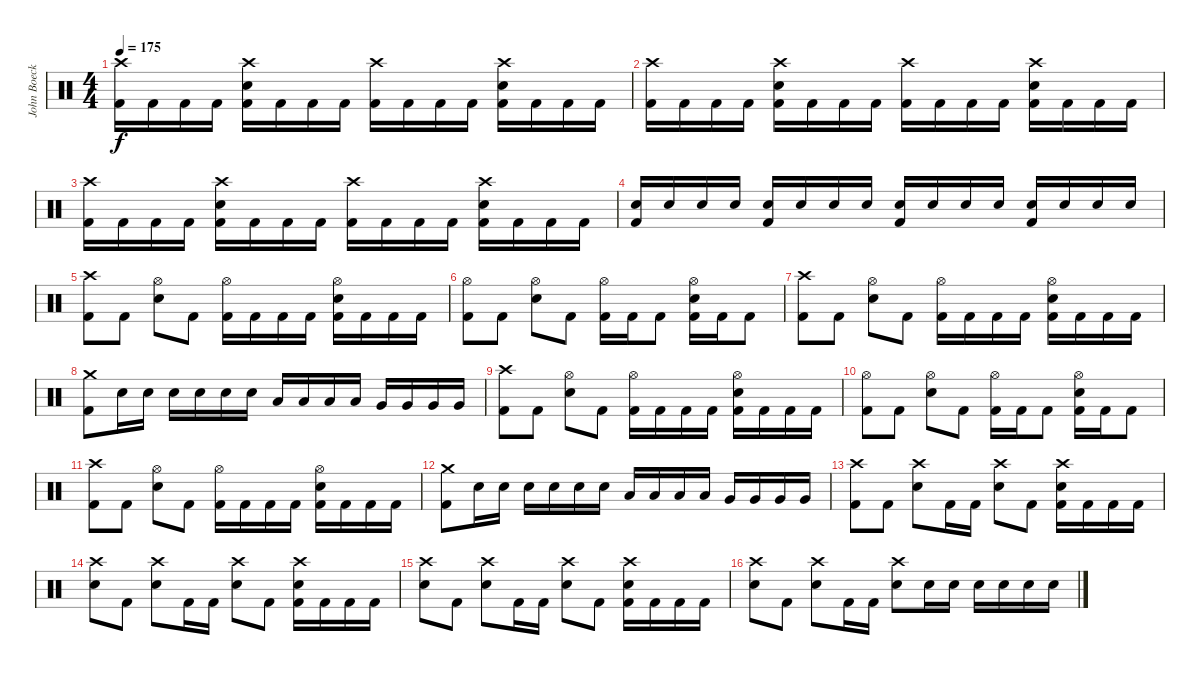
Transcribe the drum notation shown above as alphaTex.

\track ("John Boecklin (Drums)" "John Boeck") {instrument percussion}
\staff {score}
\articulation defaults
\ts (4 4)
\tempo 175
\clef neutral
\ks c
("Crash high (hit)" "Kick (hit) 2").16{dy f} "Kick (hit) 2".16 "Kick (hit) 2".16 "Kick (hit) 2".16 ("Crash high (hit)" "Snare (hit) 2" "Kick (hit) 2").16 "Kick (hit) 2".16 "Kick (hit) 2".16 "Kick (hit) 2".16 ("Crash high (hit)" "Kick (hit) 2").16 "Kick (hit) 2".16 "Kick (hit) 2".16 "Kick (hit) 2".16 ("Crash high (hit)" "Snare (hit) 2" "Kick (hit) 2").16 "Kick (hit) 2".16 "Kick (hit) 2".16 "Kick (hit) 2".16 |
("Crash high (hit)" "Kick (hit) 2").16 "Kick (hit) 2".16 "Kick (hit) 2".16 "Kick (hit) 2".16 ("Crash high (hit)" "Snare (hit) 2" "Kick (hit) 2").16 "Kick (hit) 2".16 "Kick (hit) 2".16 "Kick (hit) 2".16 ("Crash high (hit)" "Kick (hit) 2").16 "Kick (hit) 2".16 "Kick (hit) 2".16 "Kick (hit) 2".16 ("Crash high (hit)" "Snare (hit) 2" "Kick (hit) 2").16 "Kick (hit) 2".16 "Kick (hit) 2".16 "Kick (hit) 2".16 |
("Crash high (hit)" "Kick (hit) 2").16 "Kick (hit) 2".16 "Kick (hit) 2".16 "Kick (hit) 2".16 ("Crash high (hit)" "Snare (hit) 2" "Kick (hit) 2").16 "Kick (hit) 2".16 "Kick (hit) 2".16 "Kick (hit) 2".16 ("Crash high (hit)" "Kick (hit) 2").16 "Kick (hit) 2".16 "Kick (hit) 2".16 "Kick (hit) 2".16 ("Crash high (hit)" "Snare (hit) 2" "Kick (hit) 2").16 "Kick (hit) 2".16 "Kick (hit) 2".16 "Kick (hit) 2".16 |
("Kick (hit) 2" "Snare (hit) 2").16 "Snare (hit) 2".16 "Snare (hit) 2".16 "Snare (hit) 2".16 ("Kick (hit) 2" "Snare (hit) 2").16 "Snare (hit) 2".16 "Snare (hit) 2".16 "Snare (hit) 2".16 ("Kick (hit) 2" "Snare (hit) 2").16 "Snare (hit) 2".16 "Snare (hit) 2".16 "Snare (hit) 2".16 ("Kick (hit) 2" "Snare (hit) 2").16 "Snare (hit) 2".16 "Snare (hit) 2".16 "Snare (hit) 2".16 |
("Crash high (hit)" "Kick (hit) 2").8 "Kick (hit) 2".8 ("Hi-Hat (open)" "Snare (hit) 2").8 "Kick (hit) 2".8 ("Hi-Hat (open)" "Kick (hit) 2").16 "Kick (hit) 2".16 "Kick (hit) 2".16 "Kick (hit) 2".16 ("Hi-Hat (open)" "Snare (hit) 2" "Kick (hit) 2").16 "Kick (hit) 2".16 "Kick (hit) 2".16 "Kick (hit) 2".16 |
("Hi-Hat (open)" "Kick (hit) 2").8 "Kick (hit) 2".8 ("Hi-Hat (open)" "Snare (hit) 2").8 "Kick (hit) 2".8 ("Hi-Hat (open)" "Kick (hit) 2").16 "Kick (hit) 2".16 "Kick (hit) 2".8 ("Hi-Hat (open)" "Snare (hit) 2" "Kick (hit) 2").16 "Kick (hit) 2".16 "Kick (hit) 2".8 |
("Crash high (hit)" "Kick (hit) 2").8 "Kick (hit) 2".8 ("Hi-Hat (open)" "Snare (hit) 2").8 "Kick (hit) 2".8 ("Hi-Hat (open)" "Kick (hit) 2").16 "Kick (hit) 2".16 "Kick (hit) 2".16 "Kick (hit) 2".16 ("Hi-Hat (open)" "Snare (hit) 2" "Kick (hit) 2").16 "Kick (hit) 2".16 "Kick (hit) 2".16 "Kick (hit) 2".16 |
("Crash medium (hit)" "Kick (hit) 2").8 "Snare (hit) 2".16 "Snare (hit) 2".16 "Snare (hit) 2".16 "Snare (hit) 2".16 "Snare (hit) 2".16 "Snare (hit) 2".16 "Low Tom (hit)".16 "Low Tom (hit)".16 "Low Tom (hit)".16 "Low Tom (hit)".16 "Very Low Tom (hit)".16 "Very Low Tom (hit)".16 "Very Low Tom (hit)".16 "Very Low Tom (hit)".16 |
("Crash high (hit)" "Kick (hit) 2").8 "Kick (hit) 2".8 ("Hi-Hat (open)" "Snare (hit) 2").8 "Kick (hit) 2".8 ("Hi-Hat (open)" "Kick (hit) 2").16 "Kick (hit) 2".16 "Kick (hit) 2".16 "Kick (hit) 2".16 ("Hi-Hat (open)" "Snare (hit) 2" "Kick (hit) 2").16 "Kick (hit) 2".16 "Kick (hit) 2".16 "Kick (hit) 2".16 |
("Hi-Hat (open)" "Kick (hit) 2").8 "Kick (hit) 2".8 ("Hi-Hat (open)" "Snare (hit) 2").8 "Kick (hit) 2".8 ("Hi-Hat (open)" "Kick (hit) 2").16 "Kick (hit) 2".16 "Kick (hit) 2".8 ("Hi-Hat (open)" "Snare (hit) 2" "Kick (hit) 2").16 "Kick (hit) 2".16 "Kick (hit) 2".8 |
("Crash high (hit)" "Kick (hit) 2").8 "Kick (hit) 2".8 ("Hi-Hat (open)" "Snare (hit) 2").8 "Kick (hit) 2".8 ("Hi-Hat (open)" "Kick (hit) 2").16 "Kick (hit) 2".16 "Kick (hit) 2".16 "Kick (hit) 2".16 ("Hi-Hat (open)" "Snare (hit) 2" "Kick (hit) 2").16 "Kick (hit) 2".16 "Kick (hit) 2".16 "Kick (hit) 2".16 |
("Crash medium (hit)" "Kick (hit) 2").8 "Snare (hit) 2".16 "Snare (hit) 2".16 "Snare (hit) 2".16 "Snare (hit) 2".16 "Snare (hit) 2".16 "Snare (hit) 2".16 "Low Tom (hit)".16 "Low Tom (hit)".16 "Low Tom (hit)".16 "Low Tom (hit)".16 "Very Low Tom (hit)".16 "Very Low Tom (hit)".16 "Very Low Tom (hit)".16 "Very Low Tom (hit)".16 |
("Crash high (hit)" "Kick (hit) 2").8 "Kick (hit) 2".8 ("Crash high (hit)" "Snare (hit) 2").8 "Kick (hit) 2".16 "Kick (hit) 2".16 ("Crash high (hit)" "Snare (hit) 2").8 "Kick (hit) 2".8 ("Crash high (hit)" "Snare (hit) 2" "Kick (hit) 2").16 "Kick (hit) 2".16 "Kick (hit) 2".16 "Kick (hit) 2".16 |
("Crash high (hit)" "Snare (hit) 2").8 "Kick (hit) 2".8 ("Crash high (hit)" "Snare (hit) 2").8 "Kick (hit) 2".16 "Kick (hit) 2".16 ("Crash high (hit)" "Snare (hit) 2").8 "Kick (hit) 2".8 ("Crash high (hit)" "Snare (hit) 2" "Kick (hit) 2").16 "Kick (hit) 2".16 "Kick (hit) 2".16 "Kick (hit) 2".16 |
("Crash high (hit)" "Snare (hit) 2").8 "Kick (hit) 2".8 ("Crash high (hit)" "Snare (hit) 2").8 "Kick (hit) 2".16 "Kick (hit) 2".16 ("Crash high (hit)" "Snare (hit) 2").8 "Kick (hit) 2".8 ("Crash high (hit)" "Snare (hit) 2" "Kick (hit) 2").16 "Kick (hit) 2".16 "Kick (hit) 2".16 "Kick (hit) 2".16 |
("Crash high (hit)" "Snare (hit) 2").8 "Kick (hit) 2".8 ("Crash high (hit)" "Snare (hit) 2").8 "Kick (hit) 2".16 "Kick (hit) 2".16 ("Crash high (hit)" "Snare (hit) 2").8 "Snare (hit) 2".16 "Snare (hit) 2".16 "Snare (hit) 2".16 "Snare (hit) 2".16 "Snare (hit) 2".16 "Snare (hit) 2".16
